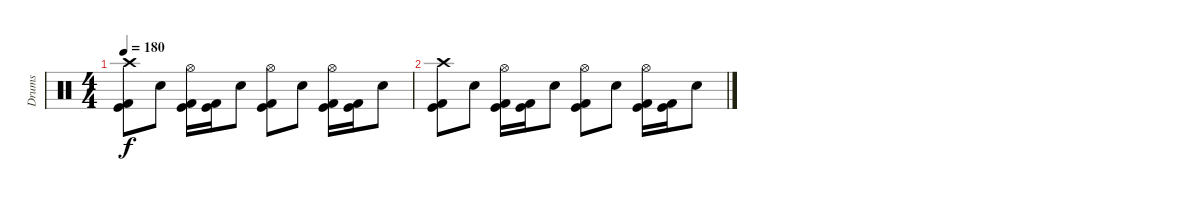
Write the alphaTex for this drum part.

\track ("Drums" "Drums") {instrument percussion}
\staff {score}
\articulation defaults
\ts (4 4)
\tempo 180
\clef neutral
\ks c
("Crash high (hit)" "Kick (hit)" "Kick (hit) 2").8{dy f} "Electric Snare (hit)".8 ("Hi-Hat (open)" "Kick (hit)" "Kick (hit) 2").16 ("Kick (hit)" "Kick (hit) 2").16 "Electric Snare (hit)".8 ("Hi-Hat (open)" "Kick (hit)" "Kick (hit) 2").8 "Electric Snare (hit)".8 ("Hi-Hat (open)" "Kick (hit)" "Kick (hit) 2").16 ("Kick (hit)" "Kick (hit) 2").16 "Electric Snare (hit)".8 |
("Crash high (hit)" "Kick (hit)" "Kick (hit) 2").8 "Electric Snare (hit)".8 ("Hi-Hat (open)" "Kick (hit)" "Kick (hit) 2").16 ("Kick (hit)" "Kick (hit) 2").16 "Electric Snare (hit)".8 ("Hi-Hat (open)" "Kick (hit)" "Kick (hit) 2").8 "Electric Snare (hit)".8 ("Hi-Hat (open)" "Kick (hit)" "Kick (hit) 2").16 ("Kick (hit)" "Kick (hit) 2").16 "Electric Snare (hit)".8
